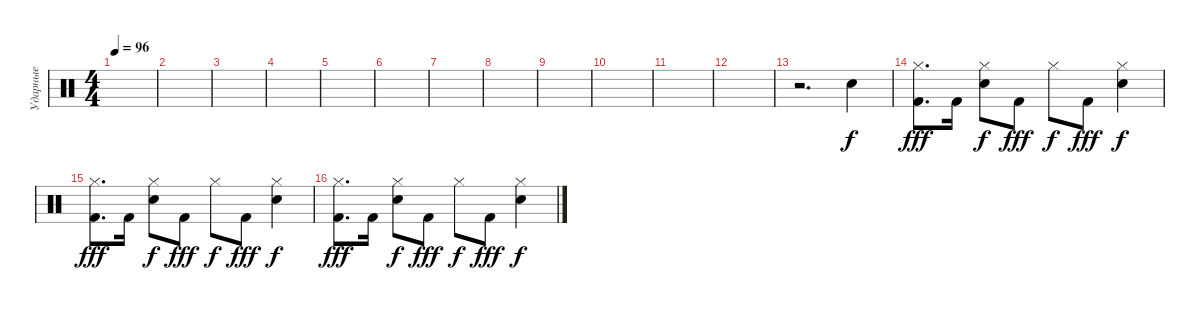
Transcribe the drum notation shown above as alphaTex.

\track ("Ударные" "Ударные") {instrument percussion}
\staff {score}
\articulation defaults
\ts (4 4)
\tempo 96
\clef neutral
\ks aminor
|
|
|
|
|
|
|
|
|
|
|
|
r.2{d} "Snare (hit) 2".4 |
("Hi-Hat (closed)" "Kick (hit) 2").8{d dy fff} "Kick (hit) 2".16 ("Hi-Hat (closed)" "Snare (hit) 2").8{dy f} "Kick (hit) 2".8{dy fff} "Hi-Hat (closed)".8{dy f} "Kick (hit) 2".8{dy fff} ("Hi-Hat (closed)" "Snare (hit) 2").4{dy f} |
("Hi-Hat (closed)" "Kick (hit) 2").8{d dy fff} "Kick (hit) 2".16 ("Hi-Hat (closed)" "Snare (hit) 2").8{dy f} "Kick (hit) 2".8{dy fff} "Hi-Hat (closed)".8{dy f} "Kick (hit) 2".8{dy fff} ("Hi-Hat (closed)" "Snare (hit) 2").4{dy f} |
("Hi-Hat (closed)" "Kick (hit) 2").8{d dy fff} "Kick (hit) 2".16 ("Hi-Hat (closed)" "Snare (hit) 2").8{dy f} "Kick (hit) 2".8{dy fff} "Hi-Hat (closed)".8{dy f} "Kick (hit) 2".8{dy fff} ("Hi-Hat (closed)" "Snare (hit) 2").4{dy f}
